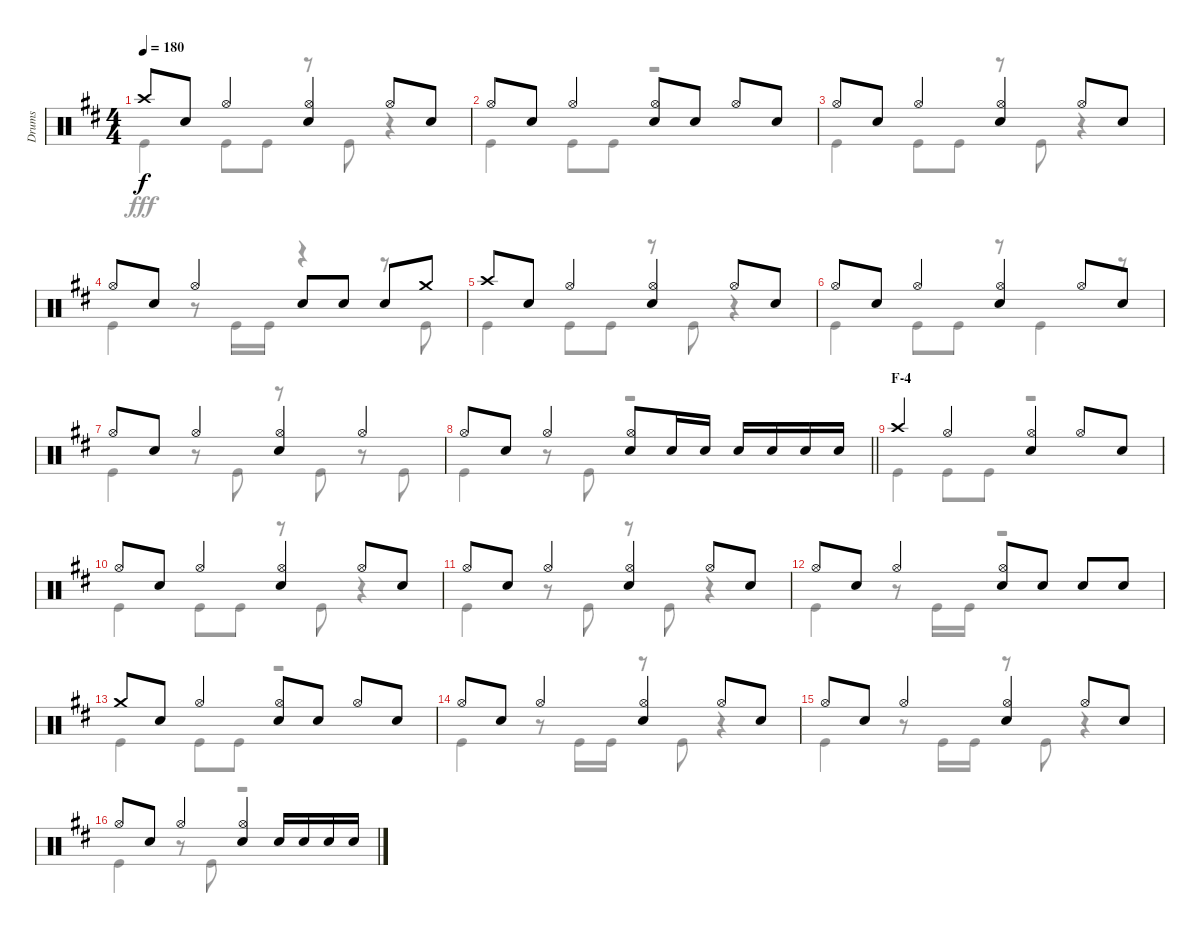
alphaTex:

\track ("Drums" "Drums") {instrument percussion}
\staff {score}
\articulation defaults
\voice
\ts (4 4)
\tempo 180
\clef neutral
\ks d "Crash high (hit)".8{dy f} "Snare (hit) 2".8 "Hi-Hat (open)".4
("Hi-Hat (open)" "Snare (hit) 2").4 "Hi-Hat (open)".8 "Snare (hit) 2".8 |
"Hi-Hat (open)".8 "Snare (hit) 2".8 "Hi-Hat (open)".4 ("Hi-Hat (open)" "Snare (hit) 2").8 "Snare (hit) 2".8 "Hi-Hat (open)".8 "Snare (hit) 2".8 |
"Hi-Hat (open)".8 "Snare (hit) 2".8 "Hi-Hat (open)".4 ("Hi-Hat (open)" "Snare (hit) 2").4 "Hi-Hat (open)".8 "Snare (hit) 2".8 |
"Hi-Hat (open)".8 "Snare (hit) 2".8 "Hi-Hat (open)".4 "Snare (hit) 2".8 "Snare (hit) 2".8 "Snare (hit) 2".8 "Crash medium (hit)".8 |
"Crash high (hit)".8 "Snare (hit) 2".8 "Hi-Hat (open)".4 ("Hi-Hat (open)" "Snare (hit) 2").4 "Hi-Hat (open)".8 "Snare (hit) 2".8 |
"Hi-Hat (open)".8 "Snare (hit) 2".8 "Hi-Hat (open)".4 ("Hi-Hat (open)" "Snare (hit) 2").4 "Hi-Hat (open)".8 "Snare (hit) 2".8 |
"Hi-Hat (open)".8 "Snare (hit) 2".8 "Hi-Hat (open)".4 ("Hi-Hat (open)" "Snare (hit) 2").4 "Hi-Hat (open)".4 |
\barLineRight lightlight "Hi-Hat (open)".8 "Snare (hit) 2".8 "Hi-Hat (open)".4
("Hi-Hat (open)" "Snare (hit) 2").8 "Snare (hit) 2".16 "Snare (hit) 2".16 "Snare (hit) 2".16 "Snare (hit) 2".16 "Snare (hit) 2".16 "Snare (hit) 2".16 |
\section ("" "F-4")
"Crash high (hit)".4 "Hi-Hat (open)".4 ("Hi-Hat (open)" "Snare (hit) 2").4 "Hi-Hat (open)".8 "Snare (hit) 2".8 |
"Hi-Hat (open)".8 "Snare (hit) 2".8 "Hi-Hat (open)".4 ("Hi-Hat (open)" "Snare (hit) 2").4 "Hi-Hat (open)".8 "Snare (hit) 2".8 |
"Hi-Hat (open)".8 "Snare (hit) 2".8 "Hi-Hat (open)".4 ("Hi-Hat (open)" "Snare (hit) 2").4 "Hi-Hat (open)".8 "Snare (hit) 2".8 |
"Hi-Hat (open)".8 "Snare (hit) 2".8 "Hi-Hat (open)".4 ("Hi-Hat (open)" "Snare (hit) 2").8 "Snare (hit) 2".8 "Snare (hit) 2".8 "Snare (hit) 2".8 |
"Crash medium (hit)".8 "Snare (hit) 2".8 "Hi-Hat (open)".4 ("Hi-Hat (open)" "Snare (hit) 2").8 "Snare (hit) 2".8 "Hi-Hat (open)".8 "Snare (hit) 2".8 |
"Hi-Hat (open)".8 "Snare (hit) 2".8 "Hi-Hat (open)".4 ("Hi-Hat (open)" "Snare (hit) 2").4 "Hi-Hat (open)".8 "Snare (hit) 2".8 |
"Hi-Hat (open)".8 "Snare (hit) 2".8 "Hi-Hat (open)".4 ("Hi-Hat (open)" "Snare (hit) 2").4 "Hi-Hat (open)".8 "Snare (hit) 2".8 |
"Hi-Hat (open)".8 "Snare (hit) 2".8 "Hi-Hat (open)".4 ("Hi-Hat (open)" "Snare (hit) 2").4 "Snare (hit) 2".16 "Snare (hit) 2".16 "Snare (hit) 2".16 "Snare (hit) 2".16
\voice
\clef neutral
\ottava regular
\simile none
\ks d "Kick (hit)".4{dy fff} "Kick (hit)".8 "Kick (hit)".8
r.8 "Kick (hit)".8 r.4 |
"Kick (hit)".4 "Kick (hit)".8 "Kick (hit)".8 r.2 |
"Kick (hit)".4 "Kick (hit)".8 "Kick (hit)".8 r.8 "Kick (hit)".8 r.4 |
"Kick (hit)".4 r.8 "Kick (hit)".16 "Kick (hit)".16 r.4 r.8 "Kick (hit)".8 |
"Kick (hit)".4 "Kick (hit)".8 "Kick (hit)".8 r.8 "Kick (hit)".8 r.4 |
"Kick (hit)".4 "Kick (hit)".8 "Kick (hit)".8 r.8 "Kick (hit)".4 r.8 |
"Kick (hit)".4 r.8 "Kick (hit)".8 r.8 "Kick (hit)".8 r.8 "Kick (hit)".8 |
\barLineRight lightlight "Kick (hit)".4
r.8 "Kick (hit)".8 r.2 |
"Kick (hit)".4 "Kick (hit)".8 "Kick (hit)".8 r.2 |
"Kick (hit)".4 "Kick (hit)".8 "Kick (hit)".8 r.8 "Kick (hit)".8 r.4 |
"Kick (hit)".4 r.8 "Kick (hit)".8 r.8 "Kick (hit)".8 r.4 |
"Kick (hit)".4 r.8 "Kick (hit)".16 "Kick (hit)".16 r.2 |
"Kick (hit)".4 "Kick (hit)".8 "Kick (hit)".8 r.2 |
"Kick (hit)".4 r.8 "Kick (hit)".16 "Kick (hit)".16 r.8 "Kick (hit)".8 r.4 |
"Kick (hit)".4 r.8 "Kick (hit)".16 "Kick (hit)".16 r.8 "Kick (hit)".8 r.4 |
"Kick (hit)".4 r.8 "Kick (hit)".8 r.2
